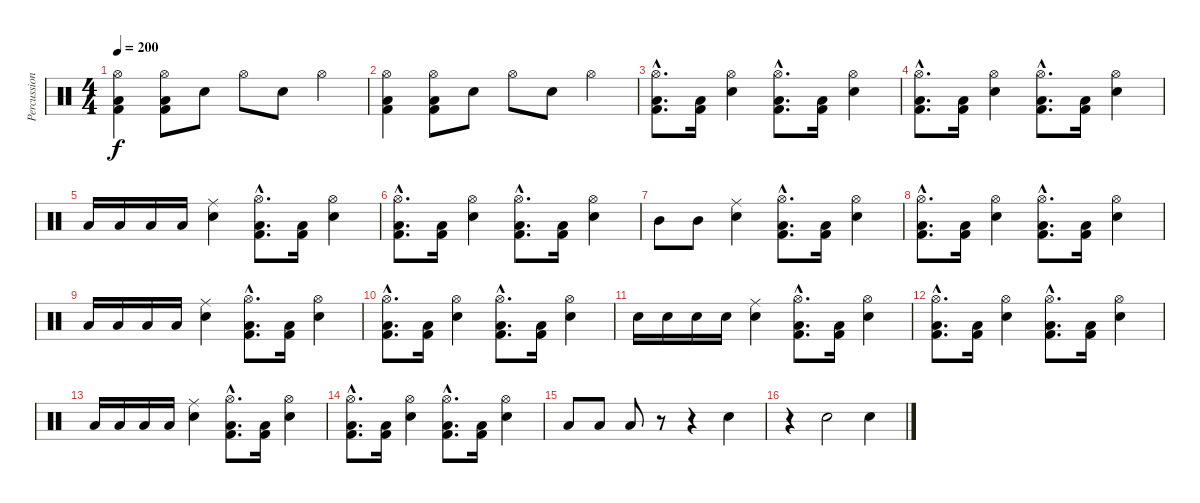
\track ("Percussions" "Percussion") {instrument percussion}
\staff {score}
\articulation defaults
\ts (4 4)
\tempo 200
\clef neutral
\ks c
("Kick (hit) 2" "Low Floor Tom (hit)" "Hi-Hat (open)").4{dy f} ("Kick (hit) 2" "Low Floor Tom (hit)" "Hi-Hat (open)").8 "Snare (hit) 2".8 "Hi-Hat (open)".8 "Snare (hit) 2".8 "Hi-Hat (open)".4 |
("Kick (hit) 2" "Low Floor Tom (hit)" "Hi-Hat (open)").4 ("Kick (hit) 2" "Low Floor Tom (hit)" "Hi-Hat (open)").8 "Snare (hit) 2".8 "Hi-Hat (open)".8 "Snare (hit) 2".8 "Hi-Hat (open)".4 |
("Kick (hit) 2"{hac} "Low Floor Tom (hit)"{hac} "Hi-Hat (open)"{hac}).8{d} ("Kick (hit) 2" "Low Floor Tom (hit)").16 ("Snare (hit) 2" "Hi-Hat (open)").4 ("Kick (hit) 2"{hac} "Low Floor Tom (hit)"{hac} "Hi-Hat (open)"{hac}).8{d} ("Kick (hit) 2" "Low Floor Tom (hit)").16 ("Snare (hit) 2" "Hi-Hat (open)").4 |
("Kick (hit) 2"{hac} "Low Floor Tom (hit)"{hac} "Hi-Hat (open)"{hac}).8{d} ("Kick (hit) 2" "Low Floor Tom (hit)").16 ("Snare (hit) 2" "Hi-Hat (open)").4 ("Kick (hit) 2"{hac} "Low Floor Tom (hit)"{hac} "Hi-Hat (open)"{hac}).8{d} ("Kick (hit) 2" "Low Floor Tom (hit)").16 ("Snare (hit) 2" "Hi-Hat (open)").4 |
"Low Tom (hit)".16 "Low Tom (hit)".16 "Low Tom (hit)".16 "Low Tom (hit)".16 ("Snare (hit) 2" "Ride (middle)").4 ("Kick (hit) 2"{hac} "Low Floor Tom (hit)"{hac} "Hi-Hat (open)"{hac}).8{d} ("Kick (hit) 2" "Low Floor Tom (hit)").16 ("Snare (hit) 2" "Hi-Hat (open)").4 |
("Kick (hit) 2"{hac} "Low Floor Tom (hit)"{hac} "Hi-Hat (open)"{hac}).8{d} ("Kick (hit) 2" "Low Floor Tom (hit)").16 ("Snare (hit) 2" "Hi-Hat (open)").4 ("Kick (hit) 2"{hac} "Low Floor Tom (hit)"{hac} "Hi-Hat (open)"{hac}).8{d} ("Kick (hit) 2" "Low Floor Tom (hit)").16 ("Snare (hit) 2" "Hi-Hat (open)").4 |
"Mid Tom (hit)".8 "Mid Tom (hit)".8 ("Snare (hit) 2" "Ride (middle)").4 ("Kick (hit) 2"{hac} "Low Floor Tom (hit)"{hac} "Hi-Hat (open)"{hac}).8{d} ("Kick (hit) 2" "Low Floor Tom (hit)").16 ("Snare (hit) 2" "Hi-Hat (open)").4 |
("Kick (hit) 2"{hac} "Low Floor Tom (hit)"{hac} "Hi-Hat (open)"{hac}).8{d} ("Kick (hit) 2" "Low Floor Tom (hit)").16 ("Snare (hit) 2" "Hi-Hat (open)").4 ("Kick (hit) 2"{hac} "Low Floor Tom (hit)"{hac} "Hi-Hat (open)"{hac}).8{d} ("Kick (hit) 2" "Low Floor Tom (hit)").16 ("Snare (hit) 2" "Hi-Hat (open)").4 |
"Low Tom (hit)".16 "Low Tom (hit)".16 "Low Tom (hit)".16 "Low Tom (hit)".16 ("Snare (hit) 2" "Ride (middle)").4 ("Kick (hit) 2"{hac} "Low Floor Tom (hit)"{hac} "Hi-Hat (open)"{hac}).8{d} ("Kick (hit) 2" "Low Floor Tom (hit)").16 ("Snare (hit) 2" "Hi-Hat (open)").4 |
("Kick (hit) 2"{hac} "Low Floor Tom (hit)"{hac} "Hi-Hat (open)"{hac}).8{d} ("Kick (hit) 2" "Low Floor Tom (hit)").16 ("Snare (hit) 2" "Hi-Hat (open)").4 ("Kick (hit) 2"{hac} "Low Floor Tom (hit)"{hac} "Hi-Hat (open)"{hac}).8{d} ("Kick (hit) 2" "Low Floor Tom (hit)").16 ("Snare (hit) 2" "Hi-Hat (open)").4 |
"Snare (hit) 2".16 "Snare (hit) 2".16 "Snare (hit) 2".16 "Snare (hit) 2".16 ("Snare (hit) 2" "Ride (middle)").4 ("Kick (hit) 2"{hac} "Low Floor Tom (hit)"{hac} "Hi-Hat (open)"{hac}).8{d} ("Kick (hit) 2" "Low Floor Tom (hit)").16 ("Snare (hit) 2" "Hi-Hat (open)").4 |
("Kick (hit) 2"{hac} "Low Floor Tom (hit)"{hac} "Hi-Hat (open)"{hac}).8{d} ("Kick (hit) 2" "Low Floor Tom (hit)").16 ("Snare (hit) 2" "Hi-Hat (open)").4 ("Kick (hit) 2"{hac} "Low Floor Tom (hit)"{hac} "Hi-Hat (open)"{hac}).8{d} ("Kick (hit) 2" "Low Floor Tom (hit)").16 ("Snare (hit) 2" "Hi-Hat (open)").4 |
"Low Tom (hit)".16 "Low Tom (hit)".16 "Low Tom (hit)".16 "Low Tom (hit)".16 ("Snare (hit) 2" "Ride (middle)").4 ("Kick (hit) 2"{hac} "Low Floor Tom (hit)"{hac} "Hi-Hat (open)"{hac}).8{d} ("Kick (hit) 2" "Low Floor Tom (hit)").16 ("Snare (hit) 2" "Hi-Hat (open)").4 |
("Kick (hit) 2"{hac} "Low Floor Tom (hit)"{hac} "Hi-Hat (open)"{hac}).8{d} ("Kick (hit) 2" "Low Floor Tom (hit)").16 ("Snare (hit) 2" "Hi-Hat (open)").4 ("Kick (hit) 2"{hac} "Low Floor Tom (hit)"{hac} "Hi-Hat (open)"{hac}).8{d} ("Kick (hit) 2" "Low Floor Tom (hit)").16 ("Snare (hit) 2" "Hi-Hat (open)").4 |
"Low Tom (hit)".8 "Low Tom (hit)".8 "Low Tom (hit)".8 r.8 r.4 "Snare (hit) 2".4 |
r.4 "Snare (hit) 2".2 "Snare (hit) 2".4
